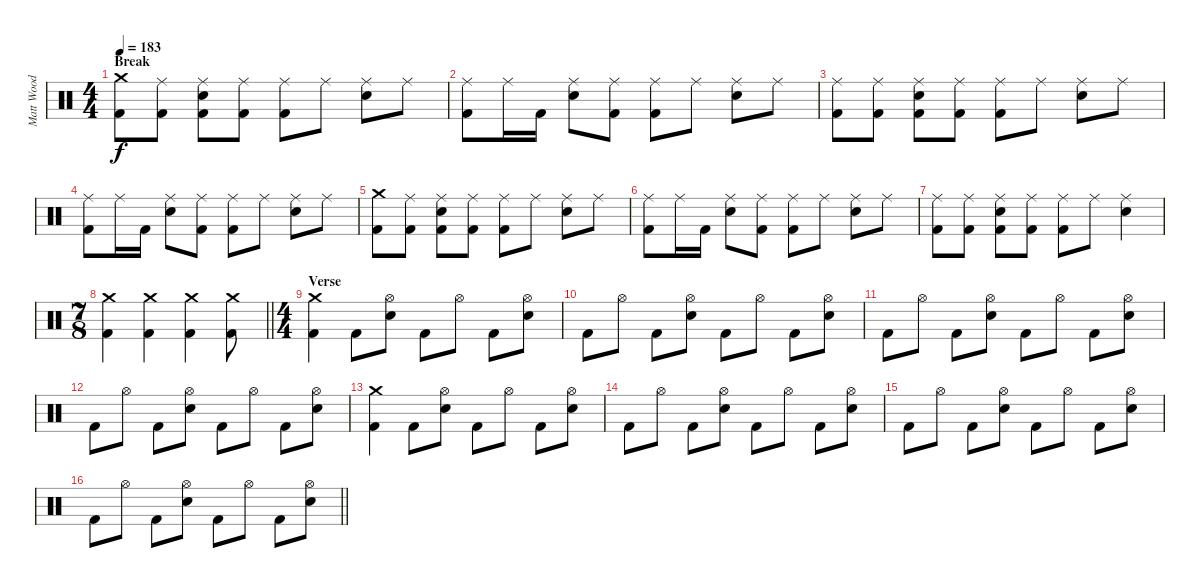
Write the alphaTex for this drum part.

\track ("Matt Wood" "Matt Wood") {instrument percussion}
\staff {score}
\articulation defaults
\ts (4 4)
\section ("" "Break")
\tempo 183
\clef neutral
\ks c
("Crash medium (hit)" "Kick (hit) 2").8{dy f} ("Ride (middle)" "Kick (hit) 2").8 ("Ride (middle)" "Snare (hit) 2" "Kick (hit) 2").8 ("Ride (middle)" "Kick (hit) 2").8 ("Ride (middle)" "Kick (hit) 2").8 "Ride (middle)".8 ("Ride (middle)" "Snare (hit) 2").8 "Ride (middle)".8 |
("Ride (middle)" "Kick (hit) 2").8 "Ride (middle)".16 "Kick (hit) 2".16 ("Ride (middle)" "Snare (hit) 2").8 ("Ride (middle)" "Kick (hit) 2").8 ("Ride (middle)" "Kick (hit) 2").8 "Ride (middle)".8 ("Ride (middle)" "Snare (hit) 2").8 "Ride (middle)".8 |
("Ride (middle)" "Kick (hit) 2").8 ("Ride (middle)" "Kick (hit) 2").8 ("Ride (middle)" "Snare (hit) 2" "Kick (hit) 2").8 ("Ride (middle)" "Kick (hit) 2").8 ("Ride (middle)" "Kick (hit) 2").8 "Ride (middle)".8 ("Ride (middle)" "Snare (hit) 2").8 "Ride (middle)".8 |
("Ride (middle)" "Kick (hit) 2").8 "Ride (middle)".16 "Kick (hit) 2".16 ("Ride (middle)" "Snare (hit) 2").8 ("Ride (middle)" "Kick (hit) 2").8 ("Ride (middle)" "Kick (hit) 2").8 "Ride (middle)".8 ("Ride (middle)" "Snare (hit) 2").8 "Ride (middle)".8 |
("Crash medium (hit)" "Kick (hit) 2").8 ("Ride (middle)" "Kick (hit) 2").8 ("Ride (middle)" "Snare (hit) 2" "Kick (hit) 2").8 ("Ride (middle)" "Kick (hit) 2").8 ("Ride (middle)" "Kick (hit) 2").8 "Ride (middle)".8 ("Ride (middle)" "Snare (hit) 2").8 "Ride (middle)".8 |
("Ride (middle)" "Kick (hit) 2").8 "Ride (middle)".16 "Kick (hit) 2".16 ("Ride (middle)" "Snare (hit) 2").8 ("Ride (middle)" "Kick (hit) 2").8 ("Ride (middle)" "Kick (hit) 2").8 "Ride (middle)".8 ("Ride (middle)" "Snare (hit) 2").8 "Ride (middle)".8 |
("Ride (middle)" "Kick (hit) 2").8 ("Ride (middle)" "Kick (hit) 2").8 ("Ride (middle)" "Snare (hit) 2" "Kick (hit) 2").8 ("Ride (middle)" "Kick (hit) 2").8 ("Ride (middle)" "Kick (hit) 2").8 "Ride (middle)".8 ("Ride (middle)" "Snare (hit) 2").4 |
\ts (7 8)
\barLineRight lightlight
("Crash medium (hit)" "Kick (hit) 2").4 ("Crash medium (hit)" "Kick (hit) 2").4 ("Crash medium (hit)" "Kick (hit) 2").4 ("Crash medium (hit)" "Kick (hit) 2").8 |
\ts (4 4)
\section ("" "Verse")
("Crash medium (hit)" "Kick (hit) 2").4 "Kick (hit) 2".8 ("Hi-Hat (open)" "Snare (hit) 2").8 "Kick (hit) 2".8 "Hi-Hat (open)".8 "Kick (hit) 2".8 ("Hi-Hat (open)" "Snare (hit) 2").8 |
"Kick (hit) 2".8 "Hi-Hat (open)".8 "Kick (hit) 2".8 ("Hi-Hat (open)" "Snare (hit) 2").8 "Kick (hit) 2".8 "Hi-Hat (open)".8 "Kick (hit) 2".8 ("Hi-Hat (open)" "Snare (hit) 2").8 |
"Kick (hit) 2".8 "Hi-Hat (open)".8 "Kick (hit) 2".8 ("Hi-Hat (open)" "Snare (hit) 2").8 "Kick (hit) 2".8 "Hi-Hat (open)".8 "Kick (hit) 2".8 ("Hi-Hat (open)" "Snare (hit) 2").8 |
"Kick (hit) 2".8 "Hi-Hat (open)".8 "Kick (hit) 2".8 ("Hi-Hat (open)" "Snare (hit) 2").8 "Kick (hit) 2".8 "Hi-Hat (open)".8 "Kick (hit) 2".8 ("Hi-Hat (open)" "Snare (hit) 2").8 |
("Crash medium (hit)" "Kick (hit) 2").4 "Kick (hit) 2".8 ("Hi-Hat (open)" "Snare (hit) 2").8 "Kick (hit) 2".8 "Hi-Hat (open)".8 "Kick (hit) 2".8 ("Hi-Hat (open)" "Snare (hit) 2").8 |
"Kick (hit) 2".8 "Hi-Hat (open)".8 "Kick (hit) 2".8 ("Hi-Hat (open)" "Snare (hit) 2").8 "Kick (hit) 2".8 "Hi-Hat (open)".8 "Kick (hit) 2".8 ("Hi-Hat (open)" "Snare (hit) 2").8 |
"Kick (hit) 2".8 "Hi-Hat (open)".8 "Kick (hit) 2".8 ("Hi-Hat (open)" "Snare (hit) 2").8 "Kick (hit) 2".8 "Hi-Hat (open)".8 "Kick (hit) 2".8 ("Hi-Hat (open)" "Snare (hit) 2").8 |
\barLineRight lightlight "Kick (hit) 2".8 "Hi-Hat (open)".8 "Kick (hit) 2".8
("Hi-Hat (open)" "Snare (hit) 2").8 "Kick (hit) 2".8 "Hi-Hat (open)".8 "Kick (hit) 2".8 ("Hi-Hat (open)" "Snare (hit) 2").8
